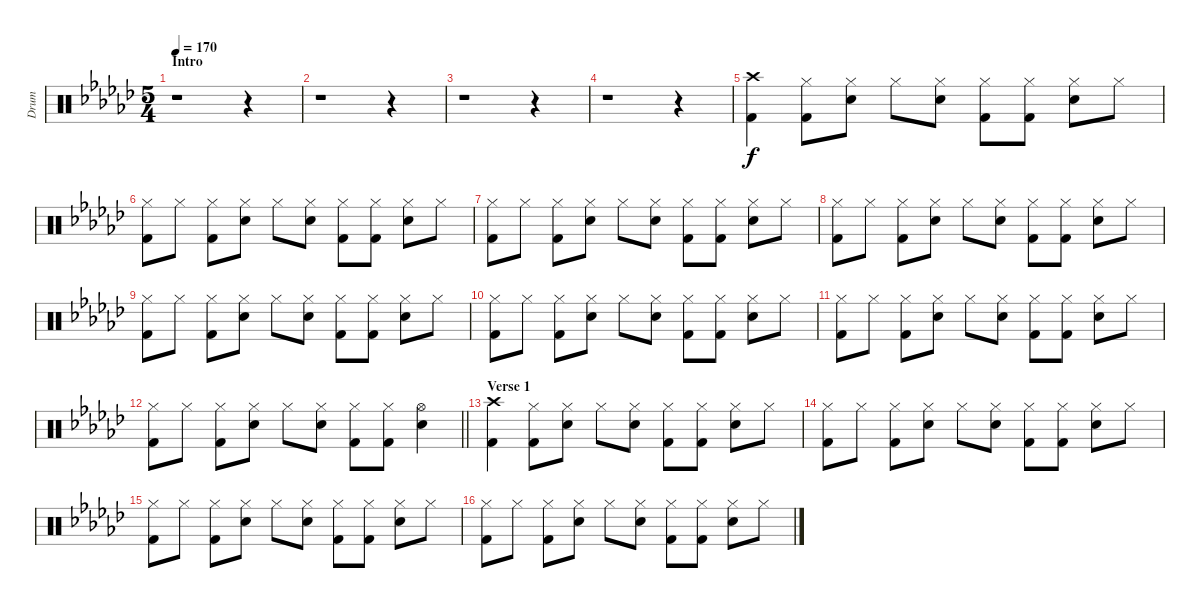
\track ("Drum" "Drum") {instrument percussion}
\staff {score}
\articulation defaults
\ts (5 4)
\section ("" "Intro")
\tempo 170
\clef neutral
\ks gb
r.1{dy f} r.4 |
r.1 r.4 |
r.1 r.4 |
r.1 r.4 |
("Crash high (hit)" "Kick (hit) 2").4 ("Hi-Hat (closed)" "Kick (hit) 2").8 ("Hi-Hat (closed)" "Snare (hit) 2").8 "Hi-Hat (closed)".8 ("Hi-Hat (closed)" "Snare (hit) 2").8 ("Hi-Hat (closed)" "Kick (hit) 2").8 ("Hi-Hat (closed)" "Kick (hit) 2").8 ("Hi-Hat (closed)" "Snare (hit) 2").8 "Hi-Hat (closed)".8 |
("Hi-Hat (closed)" "Kick (hit) 2").8 "Hi-Hat (closed)".8 ("Hi-Hat (closed)" "Kick (hit) 2").8 ("Hi-Hat (closed)" "Snare (hit) 2").8 "Hi-Hat (closed)".8 ("Hi-Hat (closed)" "Snare (hit) 2").8 ("Hi-Hat (closed)" "Kick (hit) 2").8 ("Hi-Hat (closed)" "Kick (hit) 2").8 ("Hi-Hat (closed)" "Snare (hit) 2").8 "Hi-Hat (closed)".8 |
("Hi-Hat (closed)" "Kick (hit) 2").8 "Hi-Hat (closed)".8 ("Hi-Hat (closed)" "Kick (hit) 2").8 ("Hi-Hat (closed)" "Snare (hit) 2").8 "Hi-Hat (closed)".8 ("Hi-Hat (closed)" "Snare (hit) 2").8 ("Hi-Hat (closed)" "Kick (hit) 2").8 ("Hi-Hat (closed)" "Kick (hit) 2").8 ("Hi-Hat (closed)" "Snare (hit) 2").8 "Hi-Hat (closed)".8 |
("Hi-Hat (closed)" "Kick (hit) 2").8 "Hi-Hat (closed)".8 ("Hi-Hat (closed)" "Kick (hit) 2").8 ("Hi-Hat (closed)" "Snare (hit) 2").8 "Hi-Hat (closed)".8 ("Hi-Hat (closed)" "Snare (hit) 2").8 ("Hi-Hat (closed)" "Kick (hit) 2").8 ("Hi-Hat (closed)" "Kick (hit) 2").8 ("Hi-Hat (closed)" "Snare (hit) 2").8 "Hi-Hat (closed)".8 |
("Hi-Hat (closed)" "Kick (hit) 2").8 "Hi-Hat (closed)".8 ("Hi-Hat (closed)" "Kick (hit) 2").8 ("Hi-Hat (closed)" "Snare (hit) 2").8 "Hi-Hat (closed)".8 ("Hi-Hat (closed)" "Snare (hit) 2").8 ("Hi-Hat (closed)" "Kick (hit) 2").8 ("Hi-Hat (closed)" "Kick (hit) 2").8 ("Hi-Hat (closed)" "Snare (hit) 2").8 "Hi-Hat (closed)".8 |
("Hi-Hat (closed)" "Kick (hit) 2").8 "Hi-Hat (closed)".8 ("Hi-Hat (closed)" "Kick (hit) 2").8 ("Hi-Hat (closed)" "Snare (hit) 2").8 "Hi-Hat (closed)".8 ("Hi-Hat (closed)" "Snare (hit) 2").8 ("Hi-Hat (closed)" "Kick (hit) 2").8 ("Hi-Hat (closed)" "Kick (hit) 2").8 ("Hi-Hat (closed)" "Snare (hit) 2").8 "Hi-Hat (closed)".8 |
("Hi-Hat (closed)" "Kick (hit) 2").8 "Hi-Hat (closed)".8 ("Hi-Hat (closed)" "Kick (hit) 2").8 ("Hi-Hat (closed)" "Snare (hit) 2").8 "Hi-Hat (closed)".8 ("Hi-Hat (closed)" "Snare (hit) 2").8 ("Hi-Hat (closed)" "Kick (hit) 2").8 ("Hi-Hat (closed)" "Kick (hit) 2").8 ("Hi-Hat (closed)" "Snare (hit) 2").8 "Hi-Hat (closed)".8 |
\barLineRight lightlight
("Hi-Hat (closed)" "Kick (hit) 2").8 "Hi-Hat (closed)".8 ("Hi-Hat (closed)" "Kick (hit) 2").8 ("Hi-Hat (closed)" "Snare (hit) 2").8 "Hi-Hat (closed)".8 ("Hi-Hat (closed)" "Snare (hit) 2").8 ("Hi-Hat (closed)" "Kick (hit) 2").8 ("Hi-Hat (closed)" "Kick (hit) 2").8 ("Hi-Hat (open)" "Snare (hit) 2").4 |
\section ("" "Verse 1")
("Crash high (hit)" "Kick (hit) 2").4 ("Hi-Hat (closed)" "Kick (hit) 2").8 ("Hi-Hat (closed)" "Snare (hit) 2").8 "Hi-Hat (closed)".8 ("Hi-Hat (closed)" "Snare (hit) 2").8 ("Hi-Hat (closed)" "Kick (hit) 2").8 ("Hi-Hat (closed)" "Kick (hit) 2").8 ("Hi-Hat (closed)" "Snare (hit) 2").8 "Hi-Hat (closed)".8 |
("Hi-Hat (closed)" "Kick (hit) 2").8 "Hi-Hat (closed)".8 ("Hi-Hat (closed)" "Kick (hit) 2").8 ("Hi-Hat (closed)" "Snare (hit) 2").8 "Hi-Hat (closed)".8 ("Hi-Hat (closed)" "Snare (hit) 2").8 ("Hi-Hat (closed)" "Kick (hit) 2").8 ("Hi-Hat (closed)" "Kick (hit) 2").8 ("Hi-Hat (closed)" "Snare (hit) 2").8 "Hi-Hat (closed)".8 |
("Hi-Hat (closed)" "Kick (hit) 2").8 "Hi-Hat (closed)".8 ("Hi-Hat (closed)" "Kick (hit) 2").8 ("Hi-Hat (closed)" "Snare (hit) 2").8 "Hi-Hat (closed)".8 ("Hi-Hat (closed)" "Snare (hit) 2").8 ("Hi-Hat (closed)" "Kick (hit) 2").8 ("Hi-Hat (closed)" "Kick (hit) 2").8 ("Hi-Hat (closed)" "Snare (hit) 2").8 "Hi-Hat (closed)".8 |
("Hi-Hat (closed)" "Kick (hit) 2").8 "Hi-Hat (closed)".8 ("Hi-Hat (closed)" "Kick (hit) 2").8 ("Hi-Hat (closed)" "Snare (hit) 2").8 "Hi-Hat (closed)".8 ("Hi-Hat (closed)" "Snare (hit) 2").8 ("Hi-Hat (closed)" "Kick (hit) 2").8 ("Hi-Hat (closed)" "Kick (hit) 2").8 ("Hi-Hat (closed)" "Snare (hit) 2").8 "Hi-Hat (closed)".8
